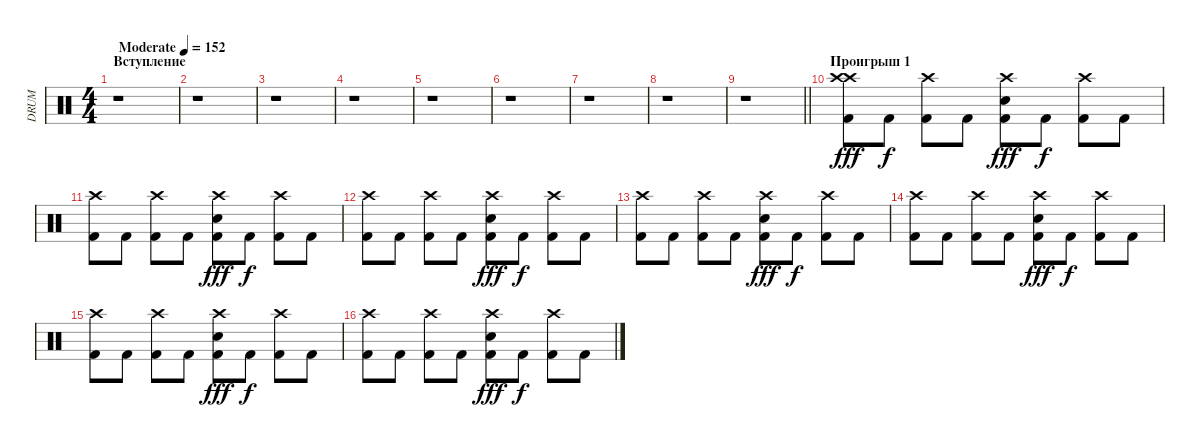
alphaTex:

\track ("DRUM" "DRUM") {instrument percussion}
\staff {score}
\articulation defaults
\ts (4 4)
\section ("" "Вступление")
\tempo (152 "Moderate")
\clef neutral
\ks c
r.1{dy fff} |
r.1 |
r.1 |
r.1 |
r.1 |
r.1 |
r.1 |
r.1 |
\barLineRight lightlight
r.1 |
\section ("" "Проигрыш 1")
("Crash high (hit)" "Crash high (hit)" "Kick (hit) 2").8 "Kick (hit) 2".8{dy f} ("Crash high (hit)" "Kick (hit) 2").8 "Kick (hit) 2".8 ("Electric Snare (hit)" "Crash high (hit)" "Kick (hit) 2").8{dy fff} "Kick (hit) 2".8{dy f} ("Crash high (hit)" "Kick (hit) 2").8 "Kick (hit) 2".8 |
("Crash high (hit)" "Kick (hit) 2").8 "Kick (hit) 2".8 ("Crash high (hit)" "Kick (hit) 2").8 "Kick (hit) 2".8 ("Electric Snare (hit)" "Crash high (hit)" "Kick (hit) 2").8{dy fff} "Kick (hit) 2".8{dy f} ("Crash high (hit)" "Kick (hit) 2").8 "Kick (hit) 2".8 |
("Crash high (hit)" "Kick (hit) 2").8 "Kick (hit) 2".8 ("Crash high (hit)" "Kick (hit) 2").8 "Kick (hit) 2".8 ("Electric Snare (hit)" "Crash high (hit)" "Kick (hit) 2").8{dy fff} "Kick (hit) 2".8{dy f} ("Crash high (hit)" "Kick (hit) 2").8 "Kick (hit) 2".8 |
("Crash high (hit)" "Kick (hit) 2").8 "Kick (hit) 2".8 ("Crash high (hit)" "Kick (hit) 2").8 "Kick (hit) 2".8 ("Electric Snare (hit)" "Crash high (hit)" "Kick (hit) 2").8{dy fff} "Kick (hit) 2".8{dy f} ("Crash high (hit)" "Kick (hit) 2").8 "Kick (hit) 2".8 |
("Crash high (hit)" "Kick (hit) 2").8 "Kick (hit) 2".8 ("Crash high (hit)" "Kick (hit) 2").8 "Kick (hit) 2".8 ("Electric Snare (hit)" "Crash high (hit)" "Kick (hit) 2").8{dy fff} "Kick (hit) 2".8{dy f} ("Crash high (hit)" "Kick (hit) 2").8 "Kick (hit) 2".8 |
("Crash high (hit)" "Kick (hit) 2").8 "Kick (hit) 2".8 ("Crash high (hit)" "Kick (hit) 2").8 "Kick (hit) 2".8 ("Electric Snare (hit)" "Crash high (hit)" "Kick (hit) 2").8{dy fff} "Kick (hit) 2".8{dy f} ("Crash high (hit)" "Kick (hit) 2").8 "Kick (hit) 2".8 |
("Crash high (hit)" "Kick (hit) 2").8 "Kick (hit) 2".8 ("Crash high (hit)" "Kick (hit) 2").8 "Kick (hit) 2".8 ("Electric Snare (hit)" "Crash high (hit)" "Kick (hit) 2").8{dy fff} "Kick (hit) 2".8{dy f} ("Crash high (hit)" "Kick (hit) 2").8 "Kick (hit) 2".8
